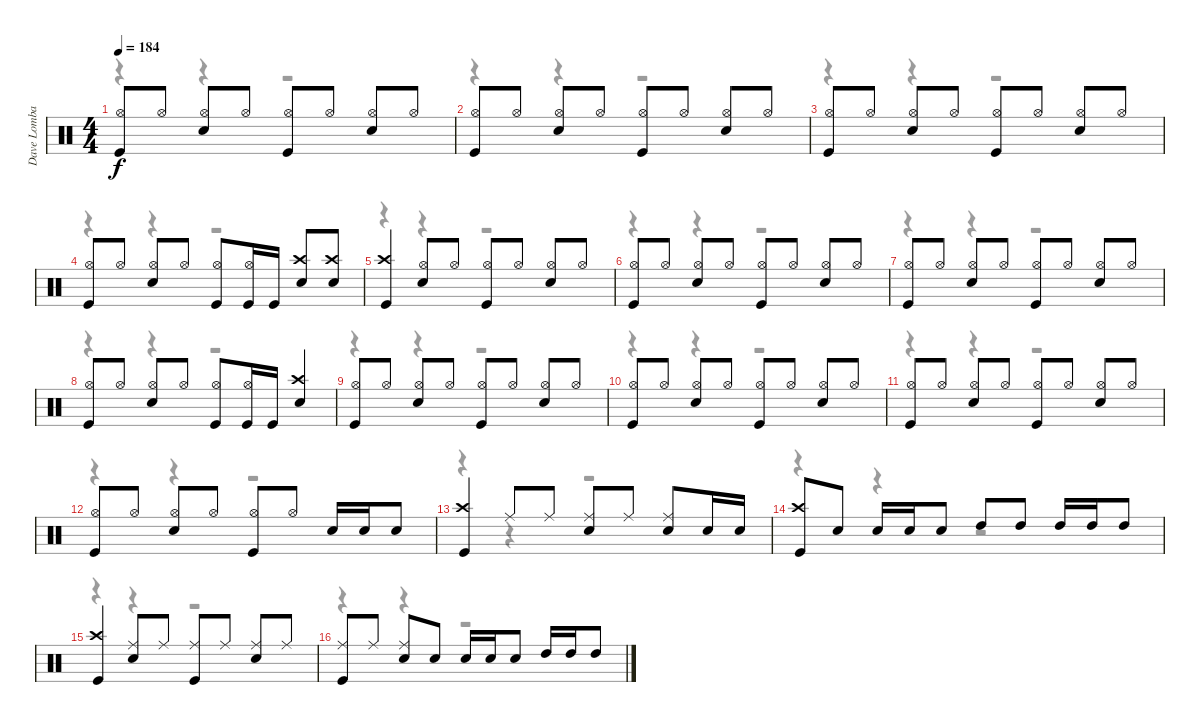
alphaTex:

\track ("Dave Lombardo" "Dave Lomba") {instrument percussion}
\staff {score}
\articulation defaults
\voice
\ts (4 4)
\tempo 184
\clef neutral
\ks c
("Hi-Hat (open)" "Kick (hit)").8{dy f} "Hi-Hat (open)".8 ("Hi-Hat (open)" "Snare (hit) 2").8 "Hi-Hat (open)".8 ("Hi-Hat (open)" "Kick (hit)").8 "Hi-Hat (open)".8 ("Hi-Hat (open)" "Snare (hit) 2").8 "Hi-Hat (open)".8 |
("Hi-Hat (open)" "Kick (hit)").8 "Hi-Hat (open)".8 ("Hi-Hat (open)" "Snare (hit) 2").8 "Hi-Hat (open)".8 ("Hi-Hat (open)" "Kick (hit)").8 "Hi-Hat (open)".8 ("Hi-Hat (open)" "Snare (hit) 2").8 "Hi-Hat (open)".8 |
("Hi-Hat (open)" "Kick (hit)").8 "Hi-Hat (open)".8 ("Hi-Hat (open)" "Snare (hit) 2").8 "Hi-Hat (open)".8 ("Hi-Hat (open)" "Kick (hit)").8 "Hi-Hat (open)".8 ("Hi-Hat (open)" "Snare (hit) 2").8 "Hi-Hat (open)".8 |
("Hi-Hat (open)" "Kick (hit)").8 "Hi-Hat (open)".8 ("Hi-Hat (open)" "Snare (hit) 2").8 "Hi-Hat (open)".8 ("Hi-Hat (open)" "Kick (hit)").8 ("Hi-Hat (open)" "Kick (hit)").16 "Kick (hit)".16 ("Crash high (hit)" "Snare (hit) 2").8 ("Crash high (hit)" "Snare (hit) 2").8 |
("Crash high (hit)" "Kick (hit)").4 ("Hi-Hat (open)" "Snare (hit) 2").8 "Hi-Hat (open)".8 ("Hi-Hat (open)" "Kick (hit)").8 "Hi-Hat (open)".8 ("Hi-Hat (open)" "Snare (hit) 2").8 "Hi-Hat (open)".8 |
("Hi-Hat (open)" "Kick (hit)").8 "Hi-Hat (open)".8 ("Hi-Hat (open)" "Snare (hit) 2").8 "Hi-Hat (open)".8 ("Hi-Hat (open)" "Kick (hit)").8 "Hi-Hat (open)".8 ("Hi-Hat (open)" "Snare (hit) 2").8 "Hi-Hat (open)".8 |
("Hi-Hat (open)" "Kick (hit)").8 "Hi-Hat (open)".8 ("Hi-Hat (open)" "Snare (hit) 2").8 "Hi-Hat (open)".8 ("Hi-Hat (open)" "Kick (hit)").8 "Hi-Hat (open)".8 ("Hi-Hat (open)" "Snare (hit) 2").8 "Hi-Hat (open)".8 |
("Hi-Hat (open)" "Kick (hit)").8 "Hi-Hat (open)".8 ("Hi-Hat (open)" "Snare (hit) 2").8 "Hi-Hat (open)".8 ("Hi-Hat (open)" "Kick (hit)").8 ("Hi-Hat (open)" "Kick (hit)").16 "Kick (hit)".16 ("Crash high (hit)" "Snare (hit) 2").4 |
("Hi-Hat (open)" "Kick (hit)").8 "Hi-Hat (open)".8 ("Hi-Hat (open)" "Snare (hit) 2").8 "Hi-Hat (open)".8 ("Hi-Hat (open)" "Kick (hit)").8 "Hi-Hat (open)".8 ("Hi-Hat (open)" "Snare (hit) 2").8 "Hi-Hat (open)".8 |
("Hi-Hat (open)" "Kick (hit)").8 "Hi-Hat (open)".8 ("Hi-Hat (open)" "Snare (hit) 2").8 "Hi-Hat (open)".8 ("Hi-Hat (open)" "Kick (hit)").8 "Hi-Hat (open)".8 ("Hi-Hat (open)" "Snare (hit) 2").8 "Hi-Hat (open)".8 |
("Hi-Hat (open)" "Kick (hit)").8 "Hi-Hat (open)".8 ("Hi-Hat (open)" "Snare (hit) 2").8 "Hi-Hat (open)".8 ("Hi-Hat (open)" "Kick (hit)").8 "Hi-Hat (open)".8 ("Hi-Hat (open)" "Snare (hit) 2").8 "Hi-Hat (open)".8 |
("Hi-Hat (open)" "Kick (hit)").8 "Hi-Hat (open)".8 ("Hi-Hat (open)" "Snare (hit) 2").8 "Hi-Hat (open)".8 ("Hi-Hat (open)" "Kick (hit)").8 "Hi-Hat (open)".8 "Snare (hit) 2".16 "Snare (hit) 2".16 "Snare (hit) 2".8 |
("Crash high (hit)" "Kick (hit)").4 "Ride (middle)".8 "Ride (middle)".8 ("Ride (middle)" "Snare (hit) 2").8 "Ride (middle)".8 ("Ride (middle)" "Snare (hit) 2").8 "Snare (hit) 2".16 "Snare (hit) 2".16 |
("Crash high (hit)" "Kick (hit)").8 "Snare (hit) 2".8 "Snare (hit) 2".16 "Snare (hit) 2".16 "Snare (hit) 2".8 "High Tom (hit)".8 "High Tom (hit)".8 "High Tom (hit)".16 "High Tom (hit)".16 "High Tom (hit)".8 |
("Crash high (hit)" "Kick (hit)").4 ("Ride (middle)" "Snare (hit) 2").8 "Ride (middle)".8 ("Ride (middle)" "Kick (hit)").8 "Ride (middle)".8 ("Ride (middle)" "Snare (hit) 2").8 "Ride (middle)".8 |
("Ride (middle)" "Kick (hit)").8 "Ride (middle)".8 ("Ride (middle)" "Snare (hit) 2").8 "Snare (hit) 2".8 "Snare (hit) 2".16 "Snare (hit) 2".16 "Snare (hit) 2".8 "High Tom (hit)".16 "High Tom (hit)".16 "High Tom (hit)".8
\voice
\clef neutral
\ottava regular
\simile none
\ks c
r.4{dy f} r.4 r.2 |
r.4 r.4 r.2 |
r.4 r.4 r.2 |
r.4 r.4 r.2 |
r.4 r.4 r.2 |
r.4 r.4 r.2 |
r.4 r.4 r.2 |
r.4 r.4 r.2 |
r.4 r.4 r.2 |
r.4 r.4 r.2 |
r.4 r.4 r.2 |
r.4 r.4 r.2 |
r.4 r.4 r.2 |
r.4 r.4 r.2 |
r.4 r.4 r.2 |
r.4 r.4 r.2
